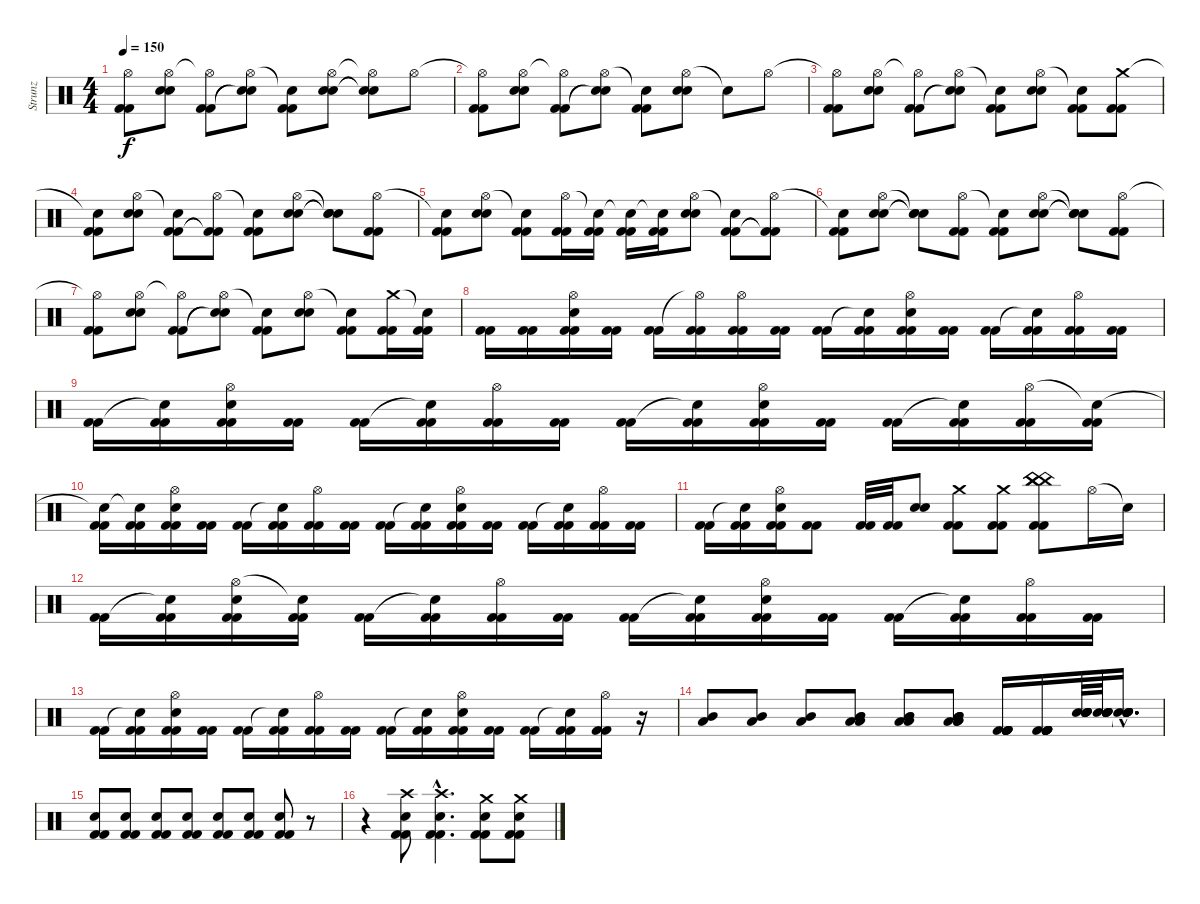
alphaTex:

\track ("Strunz" "Strunz") {instrument percussion}
\staff {score}
\articulation defaults
\ts (4 4)
\tempo 150
\clef neutral
\ks c
("Hi-Hat (open)"{t} "Kick (hit) 2" "Kick (hit) 2").8{dy f} ("Hi-Hat (open)" "Snare (hit) 2" "Snare (hit) 2").8 ("Hi-Hat (open)"{t} "Kick (hit) 2" "Kick (hit) 2").8 ("Hi-Hat (open)" "Snare (hit)"{t} "Snare (hit)"{t}).8 ("Snare (hit)"{t} "Kick (hit) 2" "Kick (hit) 2").8 ("Hi-Hat (open)" "Snare (hit) 2" "Snare (hit) 2").8 ("Hi-Hat (open)"{t} "Snare (hit)"{t} "Snare (hit)"{t}).8 "Hi-Hat (open)".8 |
("Hi-Hat (open)"{t} "Kick (hit) 2" "Kick (hit) 2").8 ("Hi-Hat (open)" "Snare (hit) 2" "Snare (hit) 2").8 ("Hi-Hat (open)"{t} "Kick (hit) 2" "Kick (hit) 2").8 ("Hi-Hat (open)" "Snare (hit)"{t} "Snare (hit)"{t}).8 ("Snare (hit)"{t} "Kick (hit) 2" "Kick (hit) 2").8 ("Hi-Hat (open)" "Snare (hit) 2" "Snare (hit) 2").8 "Snare (hit)"{t}.8 "Hi-Hat (open)".8 |
("Hi-Hat (open)"{t} "Kick (hit) 2" "Kick (hit) 2").8 ("Hi-Hat (open)" "Snare (hit) 2" "Snare (hit) 2").8 ("Hi-Hat (open)"{t} "Kick (hit) 2" "Kick (hit) 2").8 ("Hi-Hat (open)" "Snare (hit)"{t} "Snare (hit)"{t}).8 ("Snare (hit)"{t} "Kick (hit) 2" "Kick (hit) 2").8 ("Hi-Hat (open)" "Snare (hit) 2" "Snare (hit) 2").8 ("Snare (hit)"{t} "Kick (hit) 2" "Kick (hit) 2").8 ("Crash medium (hit)" "Kick (hit) 2" "Kick (hit) 2").8 |
("Snare (hit)"{t} "Kick (hit) 2" "Kick (hit) 2").8 ("Hi-Hat (open)" "Snare (hit) 2" "Snare (hit) 2").8 ("Snare (hit)"{t} "Kick (hit) 2" "Kick (hit) 2").8 ("Hi-Hat (open)" "Kick (hit) 2"{t} "Kick (hit) 2"{t}).8 ("Snare (hit)"{t} "Kick (hit) 2" "Kick (hit) 2").8 ("Hi-Hat (open)" "Snare (hit) 2" "Snare (hit) 2").8 ("Snare (hit)"{t} "Snare (hit) 2"{t} "Snare (hit) 2"{t}).8 ("Hi-Hat (open)" "Kick (hit) 2" "Kick (hit) 2").8 |
("Snare (hit)"{t} "Kick (hit) 2" "Kick (hit) 2").8 ("Hi-Hat (open)" "Snare (hit) 2" "Snare (hit) 2").8 ("Snare (hit)"{t} "Kick (hit) 2" "Kick (hit) 2").8 ("Hi-Hat (open)" "Kick (hit) 2" "Kick (hit) 2").16 ("Snare (hit)"{t} "Kick (hit) 2" "Kick (hit) 2").16 ("Snare (hit)"{t} "Kick (hit) 2" "Kick (hit) 2").16 ("Snare (hit)"{t} "Kick (hit) 2" "Kick (hit) 2").16 ("Hi-Hat (open)" "Snare (hit) 2" "Snare (hit) 2").8 ("Snare (hit)"{t} "Kick (hit) 2" "Kick (hit) 2").8 ("Hi-Hat (open)" "Kick (hit) 2"{t} "Kick (hit) 2"{t}).8 |
("Snare (hit)"{t} "Kick (hit) 2" "Kick (hit) 2").8 ("Hi-Hat (open)" "Snare (hit) 2" "Snare (hit) 2").8 ("Snare (hit)"{t} "Snare (hit) 2"{t} "Snare (hit) 2"{t}).8 ("Hi-Hat (open)" "Kick (hit) 2" "Kick (hit) 2").8 ("Snare (hit)"{t} "Kick (hit) 2" "Kick (hit) 2").8 ("Hi-Hat (open)" "Snare (hit) 2" "Snare (hit) 2").8 ("Snare (hit)"{t} "Snare (hit)"{t} "Snare (hit)"{t}).8 ("Hi-Hat (open)" "Kick (hit) 2" "Kick (hit) 2").8 |
("Hi-Hat (open)"{t} "Kick (hit) 2" "Kick (hit) 2").8 ("Hi-Hat (open)" "Snare (hit) 2" "Snare (hit) 2").8 ("Hi-Hat (open)"{t} "Kick (hit) 2" "Kick (hit) 2").8 ("Hi-Hat (open)" "Snare (hit)"{t} "Snare (hit)"{t}).8 ("Snare (hit)"{t} "Kick (hit) 2" "Kick (hit) 2").8 ("Hi-Hat (open)" "Snare (hit) 2" "Snare (hit) 2").8 ("Snare (hit)"{t} "Kick (hit) 2" "Kick (hit) 2").8 ("Crash medium (hit)" "Kick (hit) 2" "Kick (hit) 2").16 ("Snare (hit)"{t} "Kick (hit) 2" "Kick (hit) 2").16 |
("Kick (hit) 2" "Kick (hit) 2").16 ("Kick (hit) 2" "Kick (hit) 2").16 ("Hi-Hat (open)" "Snare (hit) 2" "Kick (hit) 2" "Kick (hit) 2").16 ("Kick (hit) 2" "Kick (hit) 2").16 ("Kick (hit) 2" "Kick (hit) 2").16 ("Hi-Hat (open)"{t} "Kick (hit) 2" "Kick (hit) 2").16 ("Hi-Hat (open)" "Kick (hit) 2" "Kick (hit) 2").16 ("Kick (hit) 2" "Kick (hit) 2").16 ("Kick (hit) 2" "Kick (hit) 2").16 ("Snare (hit)"{t} "Kick (hit) 2" "Kick (hit) 2").16 ("Hi-Hat (open)" "Snare (hit) 2" "Kick (hit) 2" "Kick (hit) 2").16 ("Kick (hit) 2" "Kick (hit) 2").16 ("Kick (hit) 2" "Kick (hit) 2").16 ("Snare (hit)"{t} "Kick (hit) 2" "Kick (hit) 2").16 ("Hi-Hat (open)" "Kick (hit) 2" "Kick (hit) 2").16 ("Kick (hit) 2" "Kick (hit) 2").16 |
("Kick (hit) 2" "Kick (hit) 2").16 ("Snare (hit)"{t} "Kick (hit) 2" "Kick (hit) 2").16 ("Hi-Hat (open)" "Snare (hit) 2" "Kick (hit) 2" "Kick (hit) 2").16 ("Kick (hit) 2" "Kick (hit) 2").16 ("Kick (hit) 2" "Kick (hit) 2").16 ("Snare (hit)"{t} "Kick (hit) 2" "Kick (hit) 2").16 ("Hi-Hat (open)" "Kick (hit) 2" "Kick (hit) 2").16 ("Kick (hit) 2" "Kick (hit) 2").16 ("Kick (hit) 2" "Kick (hit) 2").16 ("Snare (hit)"{t} "Kick (hit) 2" "Kick (hit) 2").16 ("Hi-Hat (open)" "Snare (hit) 2" "Kick (hit) 2" "Kick (hit) 2").16 ("Kick (hit) 2" "Kick (hit) 2").16 ("Kick (hit) 2" "Kick (hit) 2").16 ("Snare (hit)"{t} "Kick (hit) 2" "Kick (hit) 2").16 ("Hi-Hat (open)" "Kick (hit) 2" "Kick (hit) 2").16 ("Snare (hit)"{t} "Kick (hit) 2" "Kick (hit) 2").16 |
("Snare (hit)"{t} "Kick (hit) 2" "Kick (hit) 2").16 ("Snare (hit)"{t} "Kick (hit) 2" "Kick (hit) 2").16 ("Hi-Hat (open)" "Snare (hit) 2" "Kick (hit) 2" "Kick (hit) 2").16 ("Kick (hit) 2" "Kick (hit) 2").16 ("Kick (hit) 2" "Kick (hit) 2").16 ("Snare (hit)"{t} "Kick (hit) 2" "Kick (hit) 2").16 ("Hi-Hat (open)" "Kick (hit) 2" "Kick (hit) 2").16 ("Kick (hit) 2" "Kick (hit) 2").16 ("Kick (hit) 2" "Kick (hit) 2").16 ("Snare (hit)"{t} "Kick (hit) 2" "Kick (hit) 2").16 ("Hi-Hat (open)" "Snare (hit) 2" "Kick (hit) 2" "Kick (hit) 2").16 ("Kick (hit) 2" "Kick (hit) 2").16 ("Kick (hit) 2" "Kick (hit) 2").16 ("Snare (hit)"{t} "Kick (hit) 2" "Kick (hit) 2").16 ("Hi-Hat (open)" "Kick (hit) 2" "Kick (hit) 2").16 ("Kick (hit) 2" "Kick (hit) 2").16 |
("Kick (hit) 2" "Kick (hit) 2").16 ("Snare (hit)"{t} "Kick (hit) 2" "Kick (hit) 2").16 ("Hi-Hat (open)" "Snare (hit) 2" "Kick (hit) 2" "Kick (hit) 2").16 ("Kick (hit) 2" "Kick (hit) 2").8 ("Kick (hit) 2" "Kick (hit) 2").32 ("Kick (hit) 2" "Kick (hit) 2").32 ("Snare (hit) 2" "Snare (hit) 2").8 ("Crash medium (hit)" "Kick (hit) 2" "Kick (hit) 2").8 ("Crash medium (hit)" "Kick (hit) 2" "Kick (hit) 2").8 ("China (hit)" "China (hit)" "China (hit)" "Kick (hit) 2" "Kick (hit) 2").8 "Hi-Hat (open)".16 "Snare (hit)"{t}.16 |
("Kick (hit) 2" "Kick (hit) 2").16 ("Snare (hit)"{t} "Kick (hit) 2" "Kick (hit) 2").16 ("Hi-Hat (open)" "Snare (hit) 2" "Kick (hit) 2" "Kick (hit) 2").16 ("Snare (hit)"{t} "Kick (hit) 2" "Kick (hit) 2").16 ("Kick (hit) 2" "Kick (hit) 2").16 ("Snare (hit)"{t} "Kick (hit) 2" "Kick (hit) 2").16 ("Hi-Hat (open)" "Kick (hit) 2" "Kick (hit) 2").16 ("Kick (hit) 2" "Kick (hit) 2").16 ("Kick (hit) 2" "Kick (hit) 2").16 ("Snare (hit)"{t} "Kick (hit) 2" "Kick (hit) 2").16 ("Hi-Hat (open)" "Snare (hit) 2" "Kick (hit) 2" "Kick (hit) 2").16 ("Kick (hit) 2" "Kick (hit) 2").16 ("Kick (hit) 2" "Kick (hit) 2").16 ("Snare (hit)"{t} "Kick (hit) 2" "Kick (hit) 2").16 ("Hi-Hat (open)" "Kick (hit) 2" "Kick (hit) 2").16 ("Kick (hit) 2" "Kick (hit) 2").16 |
("Kick (hit) 2" "Kick (hit) 2").16 ("Snare (hit)"{t} "Kick (hit) 2" "Kick (hit) 2").16 ("Hi-Hat (open)" "Snare (hit) 2" "Kick (hit) 2" "Kick (hit) 2").16 ("Kick (hit) 2" "Kick (hit) 2").16 ("Kick (hit) 2" "Kick (hit) 2").16 ("Snare (hit)"{t} "Kick (hit) 2" "Kick (hit) 2").16 ("Hi-Hat (open)" "Kick (hit) 2" "Kick (hit) 2").16 ("Kick (hit) 2" "Kick (hit) 2").16 ("Kick (hit) 2" "Kick (hit) 2").16 ("Snare (hit)"{t} "Kick (hit) 2" "Kick (hit) 2").16 ("Hi-Hat (open)" "Snare (hit) 2" "Kick (hit) 2" "Kick (hit) 2").16 ("Kick (hit) 2" "Kick (hit) 2").16 ("Kick (hit) 2" "Kick (hit) 2").16 ("Snare (hit)"{t} "Kick (hit) 2" "Kick (hit) 2").16 ("Hi-Hat (open)" "Kick (hit) 2" "Kick (hit) 2").16 r.16 |
("Mid Tom (hit)" "Low Tom (hit)").8 ("Mid Tom (hit)" "Low Tom (hit)").8 ("Mid Tom (hit)" "Low Tom (hit)").8 ("Low Tom (hit)" "Low Tom (hit)" "Mid Tom (hit)" "Mid Tom (hit)").8 ("Low Tom (hit)" "Low Tom (hit)" "Mid Tom (hit)" "Mid Tom (hit)").8 ("Low Tom (hit)" "Low Tom (hit)" "Low Tom (hit)" "Mid Tom (hit)" "Mid Tom (hit)" "Mid Tom (hit)").8 ("Kick (hit) 2" "Kick (hit) 2" "Kick (hit) 2" "Kick (hit) 2" "Kick (hit) 2" "Kick (hit) 2").16 ("Kick (hit) 2" "Kick (hit) 2" "Kick (hit) 2" "Kick (hit) 2" "Kick (hit) 2" "Kick (hit) 2").16 ("Snare (hit) 2" "Snare (hit) 2" "Snare (hit) 2" "Snare (hit) 2" "Snare (hit) 2" "Snare (hit) 2").64 ("Snare (hit) 2" "Snare (hit) 2" "Snare (hit) 2" "Snare (hit) 2" "Snare (hit) 2" "Snare (hit) 2").64 ("Snare (hit)"{hac t} "Snare (hit)"{hac t} "Snare (hit)"{hac t} "Snare (hit)"{hac t} "Snare (hit)"{hac t} "Snare (hit)"{hac t}).16{d} |
("Snare (hit) 2" "Kick (hit) 2" "Kick (hit) 2").8 ("Electric Snare (hit)" "Kick (hit) 2" "Kick (hit) 2").8 ("Snare (hit) 2" "Kick (hit) 2" "Kick (hit) 2").8 ("Electric Snare (hit)" "Kick (hit) 2" "Kick (hit) 2").8 ("Snare (hit) 2" "Kick (hit) 2" "Kick (hit) 2").8 ("Electric Snare (hit)" "Kick (hit) 2" "Kick (hit) 2").8 ("Snare (hit) 2" "Kick (hit) 2" "Kick (hit) 2").8 r.8 |
r.4 ("Crash high (hit)" "Snare (hit) 2" "Kick (hit) 2" "Kick (hit) 2").8 ("Crash high (hit)"{hac} "Snare (hit) 2"{hac} "Kick (hit) 2"{hac} "Kick (hit) 2"{hac}).4{d} ("Crash medium (hit)" "Snare (hit) 2" "Kick (hit) 2" "Kick (hit) 2").8 ("Crash medium (hit)" "Snare (hit) 2" "Kick (hit) 2" "Kick (hit) 2").8
